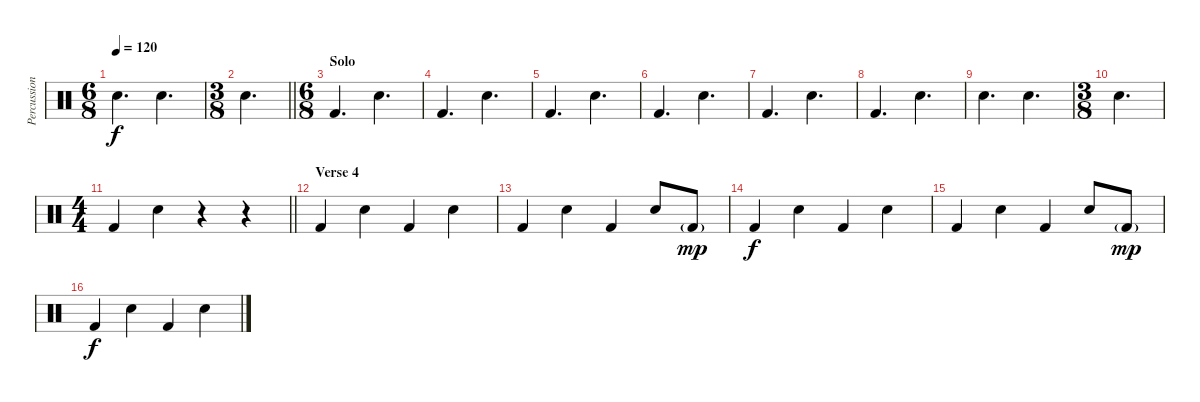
\track ("Percussion" "Percussion") {instrument percussion}
\staff {score}
\articulation defaults
\ts (6 8)
\tempo 120
\clef neutral
\ks c "Snare (hit) 2".4{d dy f} "Snare (hit) 2".4{d}
|
\ts (3 8)
\barLineRight lightlight "Snare (hit) 2".4{d}
|
\ts (6 8)
\section ("" "Solo")
"Kick (hit) 2".4{d} "Snare (hit) 2".4{d} |
"Kick (hit) 2".4{d} "Snare (hit) 2".4{d} |
"Kick (hit) 2".4{d} "Snare (hit) 2".4{d} |
"Kick (hit) 2".4{d} "Snare (hit) 2".4{d} |
"Kick (hit) 2".4{d} "Snare (hit) 2".4{d} |
"Kick (hit) 2".4{d} "Snare (hit) 2".4{d} |
"Snare (hit) 2".4{d} "Snare (hit) 2".4{d} |
\ts (3 8)
"Snare (hit) 2".4{d} |
\ts (4 4)
\barLineRight lightlight "Kick (hit) 2".4 "Snare (hit) 2".4
r.4 r.4 |
\section ("" "Verse 4")
"Kick (hit) 2".4 "Snare (hit) 2".4 "Kick (hit) 2".4 "Snare (hit) 2".4 |
"Kick (hit) 2".4 "Snare (hit) 2".4 "Kick (hit) 2".4 "Snare (hit) 2".8 "Kick (hit) 2"{g}.8{dy mp} |
"Kick (hit) 2".4{dy f} "Snare (hit) 2".4 "Kick (hit) 2".4 "Snare (hit) 2".4 |
"Kick (hit) 2".4 "Snare (hit) 2".4 "Kick (hit) 2".4 "Snare (hit) 2".8 "Kick (hit) 2"{g}.8{dy mp} |
"Kick (hit) 2".4{dy f} "Snare (hit) 2".4 "Kick (hit) 2".4 "Snare (hit) 2".4
